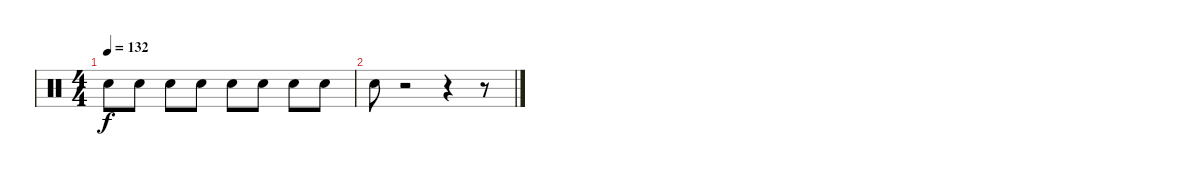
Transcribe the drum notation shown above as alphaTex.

\track "" {instrument percussion}
\staff {score}
\articulation defaults
\ts (4 4)
\tempo 132
\clef neutral
\ks c "Electric Snare (hit)".8{dy f} "Snare (hit) 2".8 "Snare (hit) 2".8 "Snare (hit) 2".8 "Snare (hit) 2".8 "Snare (hit) 2".8 "Snare (hit) 2".8 "Snare (hit) 2".8
|
"Snare (hit) 2".8 r.2 r.4 r.8
